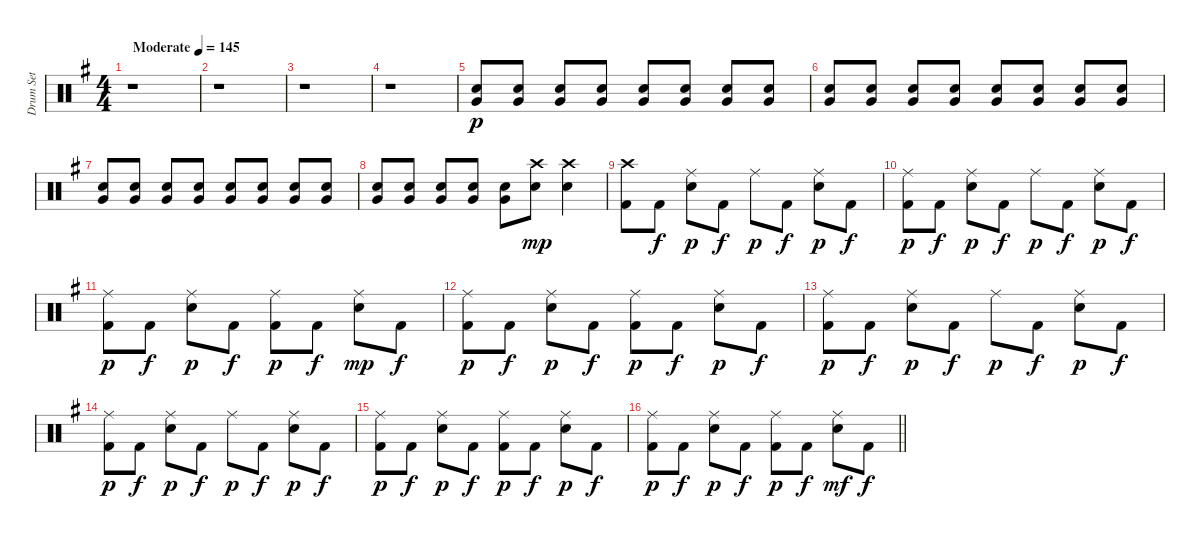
\track ("Drum Set" "Drum Set") {instrument percussion}
\staff {score}
\articulation defaults
\ts (4 4)
\tempo (145 "Moderate")
\clef neutral
\ks g
r.1{dy p} |
r.1 |
r.1 |
r.1 |
("Electric Snare (hit)" "Very Low Tom (hit)").8 ("Electric Snare (hit)" "Very Low Tom (hit)").8 ("Electric Snare (hit)" "Very Low Tom (hit)").8 ("Electric Snare (hit)" "Very Low Tom (hit)").8 ("Electric Snare (hit)" "Very Low Tom (hit)").8 ("Electric Snare (hit)" "Very Low Tom (hit)").8 ("Electric Snare (hit)" "Very Low Tom (hit)").8 ("Electric Snare (hit)" "Very Low Tom (hit)").8 |
("Electric Snare (hit)" "Very Low Tom (hit)").8 ("Electric Snare (hit)" "Very Low Tom (hit)").8 ("Electric Snare (hit)" "Very Low Tom (hit)").8 ("Electric Snare (hit)" "Very Low Tom (hit)").8 ("Electric Snare (hit)" "Very Low Tom (hit)").8 ("Electric Snare (hit)" "Very Low Tom (hit)").8 ("Electric Snare (hit)" "Very Low Tom (hit)").8 ("Electric Snare (hit)" "Very Low Tom (hit)").8 |
("Electric Snare (hit)" "Very Low Tom (hit)").8 ("Electric Snare (hit)" "Very Low Tom (hit)").8 ("Electric Snare (hit)" "Very Low Tom (hit)").8 ("Electric Snare (hit)" "Very Low Tom (hit)").8 ("Electric Snare (hit)" "Very Low Tom (hit)").8 ("Electric Snare (hit)" "Very Low Tom (hit)").8 ("Electric Snare (hit)" "Very Low Tom (hit)").8 ("Electric Snare (hit)" "Very Low Tom (hit)").8 |
("Electric Snare (hit)" "Very Low Tom (hit)").8 ("Electric Snare (hit)" "Very Low Tom (hit)").8 ("Electric Snare (hit)" "Very Low Tom (hit)").8 ("Electric Snare (hit)" "Very Low Tom (hit)").8 ("Electric Snare (hit)" "Very Low Tom (hit)").8 ("Electric Snare (hit)" "Crash high (hit)").8{dy mp} ("Electric Snare (hit)" "Crash high (hit)").4 |
("Kick (hit) 2" "Crash high (hit)").8 "Kick (hit) 2".8{dy f} ("Electric Snare (hit)" "Ride (middle)").8{dy p} "Kick (hit) 2".8{dy f} "Ride (middle)".8{dy p} "Kick (hit) 2".8{dy f} ("Electric Snare (hit)" "Ride (middle)").8{dy p} "Kick (hit) 2".8{dy f} |
("Kick (hit) 2" "Ride (middle)").8{dy p} "Kick (hit) 2".8{dy f} ("Electric Snare (hit)" "Ride (middle)").8{dy p} "Kick (hit) 2".8{dy f} "Ride (middle)".8{dy p} "Kick (hit) 2".8{dy f} ("Electric Snare (hit)" "Ride (middle)").8{dy p} "Kick (hit) 2".8{dy f} |
("Kick (hit) 2" "Ride (middle)").8{dy p} "Kick (hit) 2".8{dy f} ("Electric Snare (hit)" "Ride (middle)").8{dy p} "Kick (hit) 2".8{dy f} ("Kick (hit) 2" "Ride (middle)").8{dy p} "Kick (hit) 2".8{dy f} ("Electric Snare (hit)" "Ride (middle)").8{dy mp} "Kick (hit) 2".8{dy f} |
("Kick (hit) 2" "Ride (middle)").8{dy p} "Kick (hit) 2".8{dy f} ("Electric Snare (hit)" "Ride (middle)").8{dy p} "Kick (hit) 2".8{dy f} ("Kick (hit) 2" "Ride (middle)").8{dy p} "Kick (hit) 2".8{dy f} ("Electric Snare (hit)" "Ride (middle)").8{dy p} "Kick (hit) 2".8{dy f} |
("Kick (hit) 2" "Ride (middle)").8{dy p} "Kick (hit) 2".8{dy f} ("Electric Snare (hit)" "Ride (middle)").8{dy p} "Kick (hit) 2".8{dy f} "Ride (middle)".8{dy p} "Kick (hit) 2".8{dy f} ("Electric Snare (hit)" "Ride (middle)").8{dy p} "Kick (hit) 2".8{dy f} |
("Kick (hit) 2" "Ride (middle)").8{dy p} "Kick (hit) 2".8{dy f} ("Electric Snare (hit)" "Ride (middle)").8{dy p} "Kick (hit) 2".8{dy f} "Ride (middle)".8{dy p} "Kick (hit) 2".8{dy f} ("Electric Snare (hit)" "Ride (middle)").8{dy p} "Kick (hit) 2".8{dy f} |
("Kick (hit) 2" "Ride (middle)").8{dy p} "Kick (hit) 2".8{dy f} ("Electric Snare (hit)" "Ride (middle)").8{dy p} "Kick (hit) 2".8{dy f} ("Kick (hit) 2" "Ride (middle)").8{dy p} "Kick (hit) 2".8{dy f} ("Electric Snare (hit)" "Ride (middle)").8{dy p} "Kick (hit) 2".8{dy f} |
\barLineRight lightlight
("Kick (hit) 2" "Ride (middle)").8{dy p} "Kick (hit) 2".8{dy f} ("Electric Snare (hit)" "Ride (middle)").8{dy p} "Kick (hit) 2".8{dy f} ("Kick (hit) 2" "Ride (middle)").8{dy p} "Kick (hit) 2".8{dy f} ("Electric Snare (hit)" "Ride (middle)").8{dy mf} "Kick (hit) 2".8{dy f}
